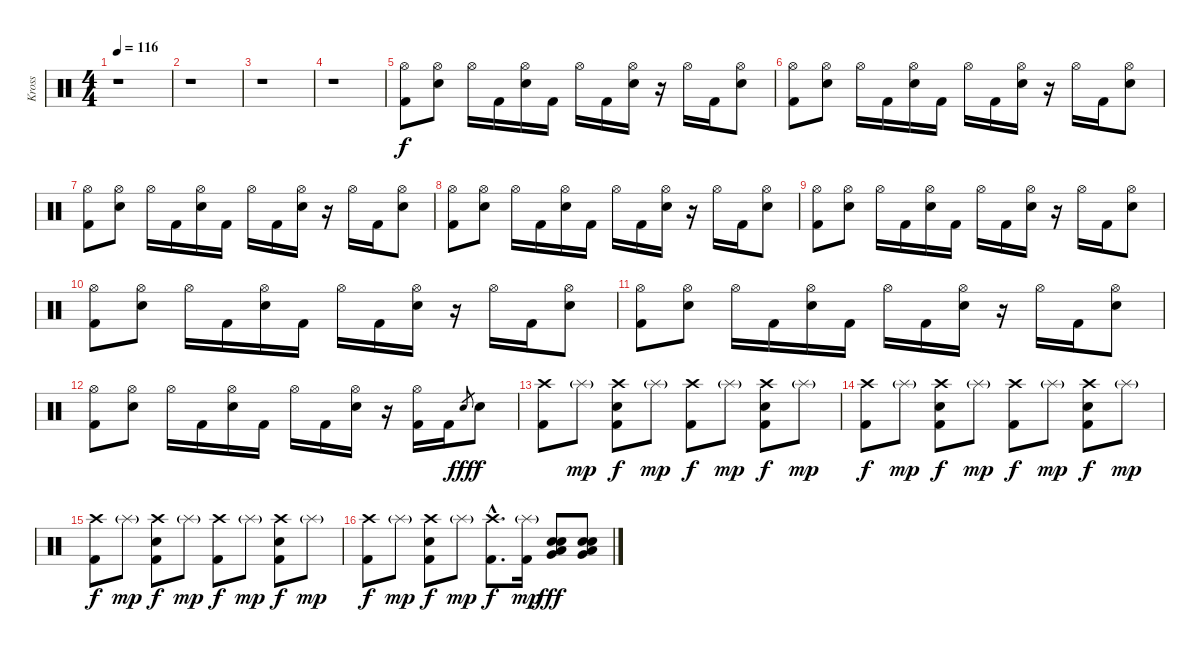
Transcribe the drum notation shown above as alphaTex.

\track ("Kross" "Kross") {instrument percussion}
\staff {score}
\articulation defaults
\ts (4 4)
\tempo 116
\clef neutral
\ks c
r.1{dy f} |
r.1 |
r.1 |
r.1 |
("Hi-Hat (open)" "Kick (hit) 2").8 ("Hi-Hat (open)" "Electric Snare (hit)").8 "Hi-Hat (open)".16 "Kick (hit) 2".16 ("Hi-Hat (open)" "Electric Snare (hit)").16 "Kick (hit) 2".16 "Hi-Hat (open)".16 "Kick (hit) 2".16 ("Hi-Hat (open)" "Electric Snare (hit)").16 r.16 "Hi-Hat (open)".16 "Kick (hit) 2".16 ("Hi-Hat (open)" "Electric Snare (hit)").8 |
("Hi-Hat (open)" "Kick (hit) 2").8 ("Hi-Hat (open)" "Electric Snare (hit)").8 "Hi-Hat (open)".16 "Kick (hit) 2".16 ("Hi-Hat (open)" "Electric Snare (hit)").16 "Kick (hit) 2".16 "Hi-Hat (open)".16 "Kick (hit) 2".16 ("Hi-Hat (open)" "Electric Snare (hit)").16 r.16 "Hi-Hat (open)".16 "Kick (hit) 2".16 ("Hi-Hat (open)" "Electric Snare (hit)").8 |
("Hi-Hat (open)" "Kick (hit) 2").8 ("Hi-Hat (open)" "Electric Snare (hit)").8 "Hi-Hat (open)".16 "Kick (hit) 2".16 ("Hi-Hat (open)" "Electric Snare (hit)").16 "Kick (hit) 2".16 "Hi-Hat (open)".16 "Kick (hit) 2".16 ("Hi-Hat (open)" "Electric Snare (hit)").16 r.16 "Hi-Hat (open)".16 "Kick (hit) 2".16 ("Hi-Hat (open)" "Electric Snare (hit)").8 |
("Hi-Hat (open)" "Kick (hit) 2").8 ("Hi-Hat (open)" "Electric Snare (hit)").8 "Hi-Hat (open)".16 "Kick (hit) 2".16 ("Hi-Hat (open)" "Electric Snare (hit)").16 "Kick (hit) 2".16 "Hi-Hat (open)".16 "Kick (hit) 2".16 ("Hi-Hat (open)" "Electric Snare (hit)").16 r.16 "Hi-Hat (open)".16 "Kick (hit) 2".16 ("Hi-Hat (open)" "Electric Snare (hit)").8 |
("Hi-Hat (open)" "Kick (hit) 2").8 ("Hi-Hat (open)" "Electric Snare (hit)").8 "Hi-Hat (open)".16 "Kick (hit) 2".16 ("Hi-Hat (open)" "Electric Snare (hit)").16 "Kick (hit) 2".16 "Hi-Hat (open)".16 "Kick (hit) 2".16 ("Hi-Hat (open)" "Electric Snare (hit)").16 r.16 "Hi-Hat (open)".16 "Kick (hit) 2".16 ("Hi-Hat (open)" "Electric Snare (hit)").8 |
("Hi-Hat (open)" "Kick (hit) 2").8 ("Hi-Hat (open)" "Electric Snare (hit)").8 "Hi-Hat (open)".16 "Kick (hit) 2".16 ("Hi-Hat (open)" "Electric Snare (hit)").16 "Kick (hit) 2".16 "Hi-Hat (open)".16 "Kick (hit) 2".16 ("Hi-Hat (open)" "Electric Snare (hit)").16 r.16 "Hi-Hat (open)".16 "Kick (hit) 2".16 ("Hi-Hat (open)" "Electric Snare (hit)").8 |
("Hi-Hat (open)" "Kick (hit) 2").8 ("Hi-Hat (open)" "Electric Snare (hit)").8 "Hi-Hat (open)".16 "Kick (hit) 2".16 ("Hi-Hat (open)" "Electric Snare (hit)").16 "Kick (hit) 2".16 "Hi-Hat (open)".16 "Kick (hit) 2".16 ("Hi-Hat (open)" "Electric Snare (hit)").16 r.16 "Hi-Hat (open)".16 "Kick (hit) 2".16 ("Hi-Hat (open)" "Electric Snare (hit)").8 |
("Hi-Hat (open)" "Kick (hit) 2").8 ("Hi-Hat (open)" "Electric Snare (hit)").8 "Hi-Hat (open)".16 "Kick (hit) 2".16 ("Hi-Hat (open)" "Electric Snare (hit)").16 "Kick (hit) 2".16 "Hi-Hat (open)".16 "Kick (hit) 2".16 ("Hi-Hat (open)" "Electric Snare (hit)").16 r.16 ("Hi-Hat (open)" "Kick (hit) 2").16 "Kick (hit) 2".16 "Electric Snare (hit)".8{gr dy fff} "Electric Snare (hit)".8{dy f} |
("Crash high (hit)" "Kick (hit) 2").8 "Splash (hit)"{g}.8{dy mp} ("Crash high (hit)" "Electric Snare (hit)" "Kick (hit) 2").8{dy f} "Splash (hit)"{g}.8{dy mp} ("Crash high (hit)" "Kick (hit) 2").8{dy f} "Splash (hit)"{g}.8{dy mp} ("Crash high (hit)" "Electric Snare (hit)" "Kick (hit) 2").8{dy f} "Splash (hit)"{g}.8{dy mp} |
("Crash high (hit)" "Kick (hit) 2").8{dy f} "Splash (hit)"{g}.8{dy mp} ("Crash high (hit)" "Electric Snare (hit)" "Kick (hit) 2").8{dy f} "Splash (hit)"{g}.8{dy mp} ("Crash high (hit)" "Kick (hit) 2").8{dy f} "Splash (hit)"{g}.8{dy mp} ("Crash high (hit)" "Electric Snare (hit)" "Kick (hit) 2").8{dy f} "Splash (hit)"{g}.8{dy mp} |
("Crash high (hit)" "Kick (hit) 2").8{dy f} "Splash (hit)"{g}.8{dy mp} ("Crash high (hit)" "Electric Snare (hit)" "Kick (hit) 2").8{dy f} "Splash (hit)"{g}.8{dy mp} ("Crash high (hit)" "Kick (hit) 2").8{dy f} "Splash (hit)"{g}.8{dy mp} ("Crash high (hit)" "Electric Snare (hit)" "Kick (hit) 2").8{dy f} "Splash (hit)"{g}.8{dy mp} |
("Crash high (hit)" "Kick (hit) 2").8{dy f} "Splash (hit)"{g}.8{dy mp} ("Crash high (hit)" "Electric Snare (hit)" "Kick (hit) 2").8{dy f} "Splash (hit)"{g}.8{dy mp} ("Crash high (hit)"{hac} "Kick (hit) 2"{hac}).8{d dy f} ("Splash (hit)"{g} "Kick (hit) 2").16{dy mp} ("Low Floor Tom (hit)" "Very Low Tom (hit)" "Electric Snare (hit)" "Electric Snare (hit)").8{dy fff} ("Low Floor Tom (hit)" "Very Low Tom (hit)" "Electric Snare (hit)" "Electric Snare (hit)").8
